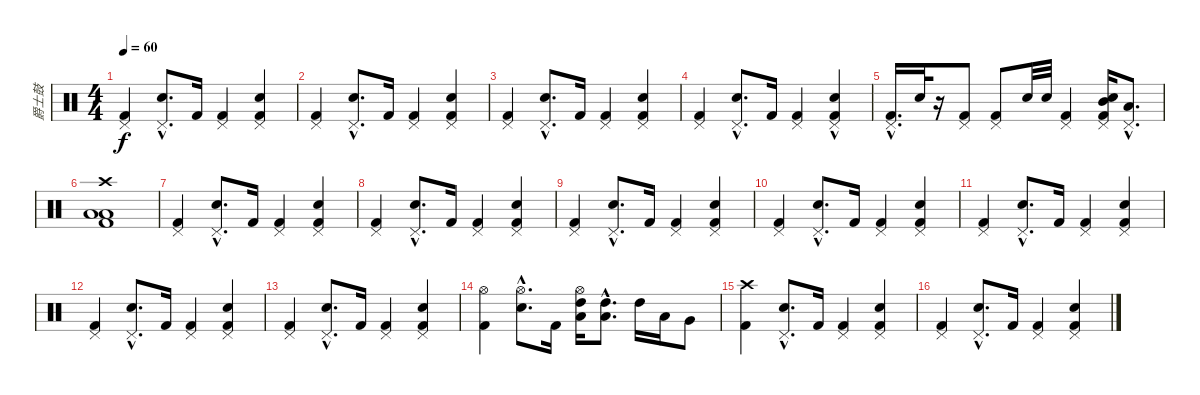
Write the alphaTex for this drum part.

\track ("爵士鼓" "爵士鼓") {instrument percussion}
\staff {score}
\articulation defaults
\ts (4 4)
\tempo 60
\clef neutral
\ks c
("Pedal Hi-Hat (hit)" "Kick (hit) 2").4{dy f} ("Pedal Hi-Hat (hit)"{hac} "Snare (hit) 2"{hac}).8{d} "Kick (hit) 2".16 ("Pedal Hi-Hat (hit)" "Kick (hit) 2").4 ("Pedal Hi-Hat (hit)" "Snare (hit) 2" "Kick (hit) 2").4 |
("Pedal Hi-Hat (hit)" "Kick (hit) 2").4 ("Pedal Hi-Hat (hit)"{hac} "Snare (hit) 2"{hac}).8{d} "Kick (hit) 2".16 ("Pedal Hi-Hat (hit)" "Kick (hit) 2").4 ("Pedal Hi-Hat (hit)" "Snare (hit) 2" "Kick (hit) 2").4 |
("Pedal Hi-Hat (hit)" "Kick (hit) 2").4 ("Pedal Hi-Hat (hit)"{hac} "Snare (hit) 2"{hac}).8{d} "Kick (hit) 2".16 ("Pedal Hi-Hat (hit)" "Kick (hit) 2").4 ("Pedal Hi-Hat (hit)" "Snare (hit) 2" "Kick (hit) 2").4 |
("Pedal Hi-Hat (hit)" "Kick (hit) 2").4 ("Pedal Hi-Hat (hit)"{hac} "Snare (hit) 2"{hac}).8{d} "Kick (hit) 2".16 ("Pedal Hi-Hat (hit)" "Kick (hit) 2").4 ("Pedal Hi-Hat (hit)"{hac} "Snare (hit) 2" "Kick (hit) 2").4 |
("Pedal Hi-Hat (hit)"{hac} "Kick (hit) 2"{hac}).16{d} "Snare (hit) 2".32 r.16 ("Pedal Hi-Hat (hit)" "Kick (hit) 2").8 ("Pedal Hi-Hat (hit)" "Kick (hit) 2").8 "Snare (hit) 2".32 "Snare (hit) 2".32 ("Pedal Hi-Hat (hit)" "Kick (hit) 2").4 ("Pedal Hi-Hat (hit)" "Mid Tom (hit)" "Snare (hit) 2" "Kick (hit) 2").16 ("Pedal Hi-Hat (hit)"{hac} "Low Tom (hit)"{hac}).8{d} |
("Crash high (hit)" "Low Tom (hit)" "Low Tom (hit)" "Kick (hit) 2").1 |
("Pedal Hi-Hat (hit)" "Kick (hit) 2").4 ("Pedal Hi-Hat (hit)"{hac} "Snare (hit) 2"{hac}).8{d} "Kick (hit) 2".16 ("Pedal Hi-Hat (hit)" "Kick (hit) 2").4 ("Pedal Hi-Hat (hit)" "Snare (hit) 2" "Kick (hit) 2").4 |
("Pedal Hi-Hat (hit)" "Kick (hit) 2").4 ("Pedal Hi-Hat (hit)"{hac} "Snare (hit) 2"{hac}).8{d} "Kick (hit) 2".16 ("Pedal Hi-Hat (hit)" "Kick (hit) 2").4 ("Pedal Hi-Hat (hit)" "Snare (hit) 2" "Kick (hit) 2").4 |
("Pedal Hi-Hat (hit)" "Kick (hit) 2").4 ("Pedal Hi-Hat (hit)"{hac} "Snare (hit) 2"{hac}).8{d} "Kick (hit) 2".16 ("Pedal Hi-Hat (hit)" "Kick (hit) 2").4 ("Pedal Hi-Hat (hit)" "Snare (hit) 2" "Kick (hit) 2").4 |
("Pedal Hi-Hat (hit)" "Kick (hit) 2").4 ("Pedal Hi-Hat (hit)"{hac} "Snare (hit) 2"{hac}).8{d} "Kick (hit) 2".16 ("Pedal Hi-Hat (hit)" "Kick (hit) 2").4 ("Pedal Hi-Hat (hit)" "Snare (hit) 2" "Kick (hit) 2").4 |
("Pedal Hi-Hat (hit)" "Kick (hit) 2").4 ("Pedal Hi-Hat (hit)"{hac} "Snare (hit) 2"{hac}).8{d} "Kick (hit) 2".16 ("Pedal Hi-Hat (hit)" "Kick (hit) 2").4 ("Pedal Hi-Hat (hit)" "Snare (hit) 2" "Kick (hit) 2").4 |
("Pedal Hi-Hat (hit)" "Kick (hit) 2").4 ("Pedal Hi-Hat (hit)"{hac} "Snare (hit) 2"{hac}).8{d} "Kick (hit) 2".16 ("Pedal Hi-Hat (hit)" "Kick (hit) 2").4 ("Pedal Hi-Hat (hit)" "Snare (hit) 2" "Kick (hit) 2").4 |
("Pedal Hi-Hat (hit)" "Kick (hit) 2").4 ("Pedal Hi-Hat (hit)"{hac} "Snare (hit) 2"{hac}).8{d} "Kick (hit) 2".16 ("Pedal Hi-Hat (hit)" "Kick (hit) 2").4 ("Pedal Hi-Hat (hit)" "Snare (hit) 2" "Kick (hit) 2").4 |
("Hi-Hat (open)" "Kick (hit) 2").4 ("Hi-Hat (open)"{hac} "Snare (hit) 2"{hac}).8{d} "Kick (hit) 2".16 ("Hi-Hat (open)" "Low Tom (hit)" "High Tom (hit)").16 ("Low Tom (hit)"{hac} "High Tom (hit)"{hac}).8{d} "High Tom (hit)".16 "Low Tom (hit)".16 "Very Low Tom (hit)".8 |
("Crash high (hit)" "Kick (hit) 2").4 ("Pedal Hi-Hat (hit)"{hac} "Snare (hit) 2"{hac}).8{d} "Kick (hit) 2".16 ("Pedal Hi-Hat (hit)" "Kick (hit) 2").4 ("Pedal Hi-Hat (hit)" "Snare (hit) 2" "Kick (hit) 2").4 |
("Pedal Hi-Hat (hit)" "Kick (hit) 2").4 ("Pedal Hi-Hat (hit)"{hac} "Snare (hit) 2"{hac}).8{d} "Kick (hit) 2".16 ("Pedal Hi-Hat (hit)" "Kick (hit) 2").4 ("Pedal Hi-Hat (hit)" "Snare (hit) 2" "Kick (hit) 2").4
